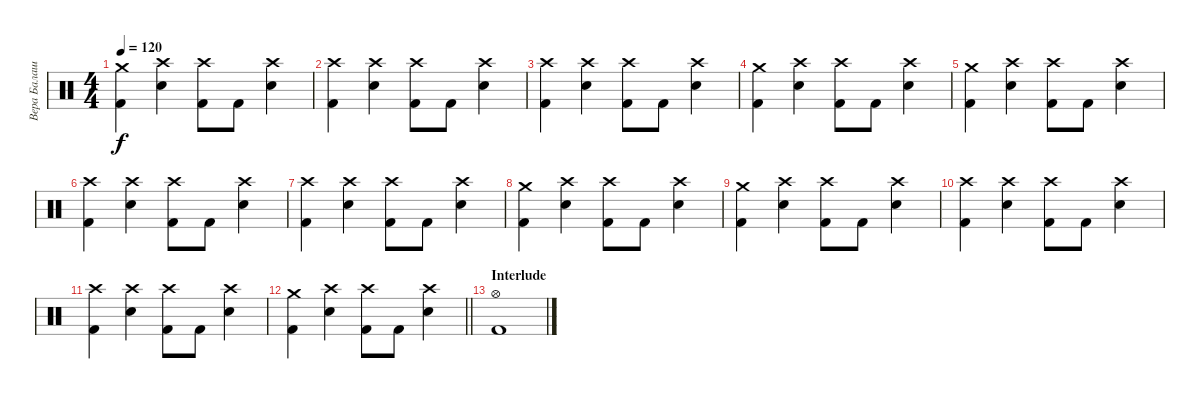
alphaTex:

\track ("Вера Балашевич" "Вера Балаш") {instrument percussion}
\staff {score}
\articulation defaults
\ts (4 4)
\tempo 120
\clef neutral
\ks c
("Crash medium (hit)" "Kick (hit) 2").4{dy f} ("Crash high (hit)" "Electric Snare (hit)").4 ("Crash high (hit)" "Kick (hit) 2").8 "Kick (hit) 2".8 ("Crash high (hit)" "Electric Snare (hit)").4 |
("Crash high (hit)" "Kick (hit) 2").4 ("Crash high (hit)" "Electric Snare (hit)").4 ("Crash high (hit)" "Kick (hit) 2").8 "Kick (hit) 2".8 ("Crash high (hit)" "Electric Snare (hit)").4 |
("Crash high (hit)" "Kick (hit) 2").4 ("Crash high (hit)" "Electric Snare (hit)").4 ("Crash high (hit)" "Kick (hit) 2").8 "Kick (hit) 2".8 ("Crash high (hit)" "Electric Snare (hit)").4 |
("Crash medium (hit)" "Kick (hit) 2").4 ("Crash high (hit)" "Electric Snare (hit)").4 ("Crash high (hit)" "Kick (hit) 2").8 "Kick (hit) 2".8 ("Crash high (hit)" "Electric Snare (hit)").4 |
("Crash medium (hit)" "Kick (hit) 2").4 ("Crash high (hit)" "Electric Snare (hit)").4 ("Crash high (hit)" "Kick (hit) 2").8 "Kick (hit) 2".8 ("Crash high (hit)" "Electric Snare (hit)").4 |
("Crash high (hit)" "Kick (hit) 2").4 ("Crash high (hit)" "Electric Snare (hit)").4 ("Crash high (hit)" "Kick (hit) 2").8 "Kick (hit) 2".8 ("Crash high (hit)" "Electric Snare (hit)").4 |
("Crash high (hit)" "Kick (hit) 2").4 ("Crash high (hit)" "Electric Snare (hit)").4 ("Crash high (hit)" "Kick (hit) 2").8 "Kick (hit) 2".8 ("Crash high (hit)" "Electric Snare (hit)").4 |
("Crash medium (hit)" "Kick (hit) 2").4 ("Crash high (hit)" "Electric Snare (hit)").4 ("Crash high (hit)" "Kick (hit) 2").8 "Kick (hit) 2".8 ("Crash high (hit)" "Electric Snare (hit)").4 |
("Crash medium (hit)" "Kick (hit) 2").4 ("Crash high (hit)" "Electric Snare (hit)").4 ("Crash high (hit)" "Kick (hit) 2").8 "Kick (hit) 2".8 ("Crash high (hit)" "Electric Snare (hit)").4 |
("Crash high (hit)" "Kick (hit) 2").4 ("Crash high (hit)" "Electric Snare (hit)").4 ("Crash high (hit)" "Kick (hit) 2").8 "Kick (hit) 2".8 ("Crash high (hit)" "Electric Snare (hit)").4 |
("Crash high (hit)" "Kick (hit) 2").4 ("Crash high (hit)" "Electric Snare (hit)").4 ("Crash high (hit)" "Kick (hit) 2").8 "Kick (hit) 2".8 ("Crash high (hit)" "Electric Snare (hit)").4 |
\barLineRight lightlight
("Crash medium (hit)" "Kick (hit) 2").4 ("Crash high (hit)" "Electric Snare (hit)").4 ("Crash high (hit)" "Kick (hit) 2").8 "Kick (hit) 2".8 ("Crash high (hit)" "Electric Snare (hit)").4 |
\section ("" "Interlude")
("Hi-Hat (open)" "Kick (hit) 2").1
